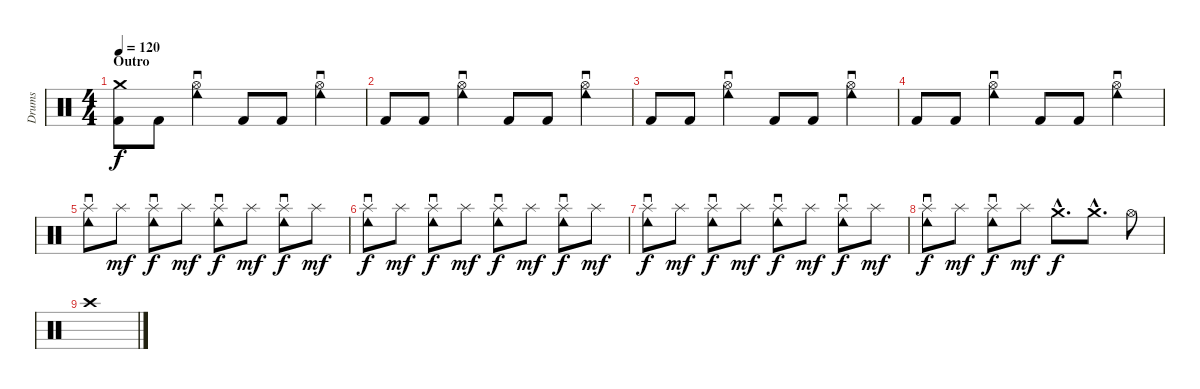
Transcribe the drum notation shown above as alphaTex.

\track ("Drums" "Drums") {instrument percussion}
\staff {score}
\articulation defaults
\ts (4 4)
\section ("" "Outro")
\tempo 120
\clef neutral
\ks c
("Crash medium (hit)" "Kick (hit) 2").8{dy f} "Kick (hit) 2".8 ("Tambourine (roll)" "Hi-Hat (open)").4 "Kick (hit) 2".8 "Kick (hit) 2".8 ("Tambourine (roll)" "Hi-Hat (open)").4 |
"Kick (hit) 2".8 "Kick (hit) 2".8 ("Tambourine (roll)" "Hi-Hat (open)").4 "Kick (hit) 2".8 "Kick (hit) 2".8 ("Tambourine (roll)" "Hi-Hat (open)").4 |
"Kick (hit) 2".8 "Kick (hit) 2".8 ("Tambourine (roll)" "Hi-Hat (open)").4 "Kick (hit) 2".8 "Kick (hit) 2".8 ("Tambourine (roll)" "Hi-Hat (open)").4 |
"Kick (hit) 2".8 "Kick (hit) 2".8 ("Tambourine (roll)" "Hi-Hat (open)").4 "Kick (hit) 2".8 "Kick (hit) 2".8 ("Tambourine (roll)" "Hi-Hat (open)").4 |
("Tambourine (roll)" "Splash (hit)").8 "Splash (hit)".8{dy mf} ("Tambourine (roll)" "Splash (hit)").8{dy f} "Splash (hit)".8{dy mf} ("Tambourine (roll)" "Splash (hit)").8{dy f} "Splash (hit)".8{dy mf} ("Tambourine (roll)" "Splash (hit)").8{dy f} "Splash (hit)".8{dy mf} |
("Tambourine (roll)" "Splash (hit)").8{dy f} "Splash (hit)".8{dy mf} ("Tambourine (roll)" "Splash (hit)").8{dy f} "Splash (hit)".8{dy mf} ("Tambourine (roll)" "Splash (hit)").8{dy f} "Splash (hit)".8{dy mf} ("Tambourine (roll)" "Splash (hit)").8{dy f} "Splash (hit)".8{dy mf} |
("Tambourine (roll)" "Splash (hit)").8{dy f} "Splash (hit)".8{dy mf} ("Tambourine (roll)" "Splash (hit)").8{dy f} "Splash (hit)".8{dy mf} ("Tambourine (roll)" "Splash (hit)").8{dy f} "Splash (hit)".8{dy mf} ("Tambourine (roll)" "Splash (hit)").8{dy f} "Splash (hit)".8{dy mf} |
("Tambourine (roll)" "Splash (hit)").8{dy f} "Splash (hit)".8{dy mf} ("Tambourine (roll)" "Splash (hit)").8{dy f} "Splash (hit)".8{dy mf} "Crash medium (hit)"{hac}.8{d dy f} "Crash medium (hit)"{hac}.8{d} "Hi-Hat (open)".8 |
"Crash high (hit)".1
